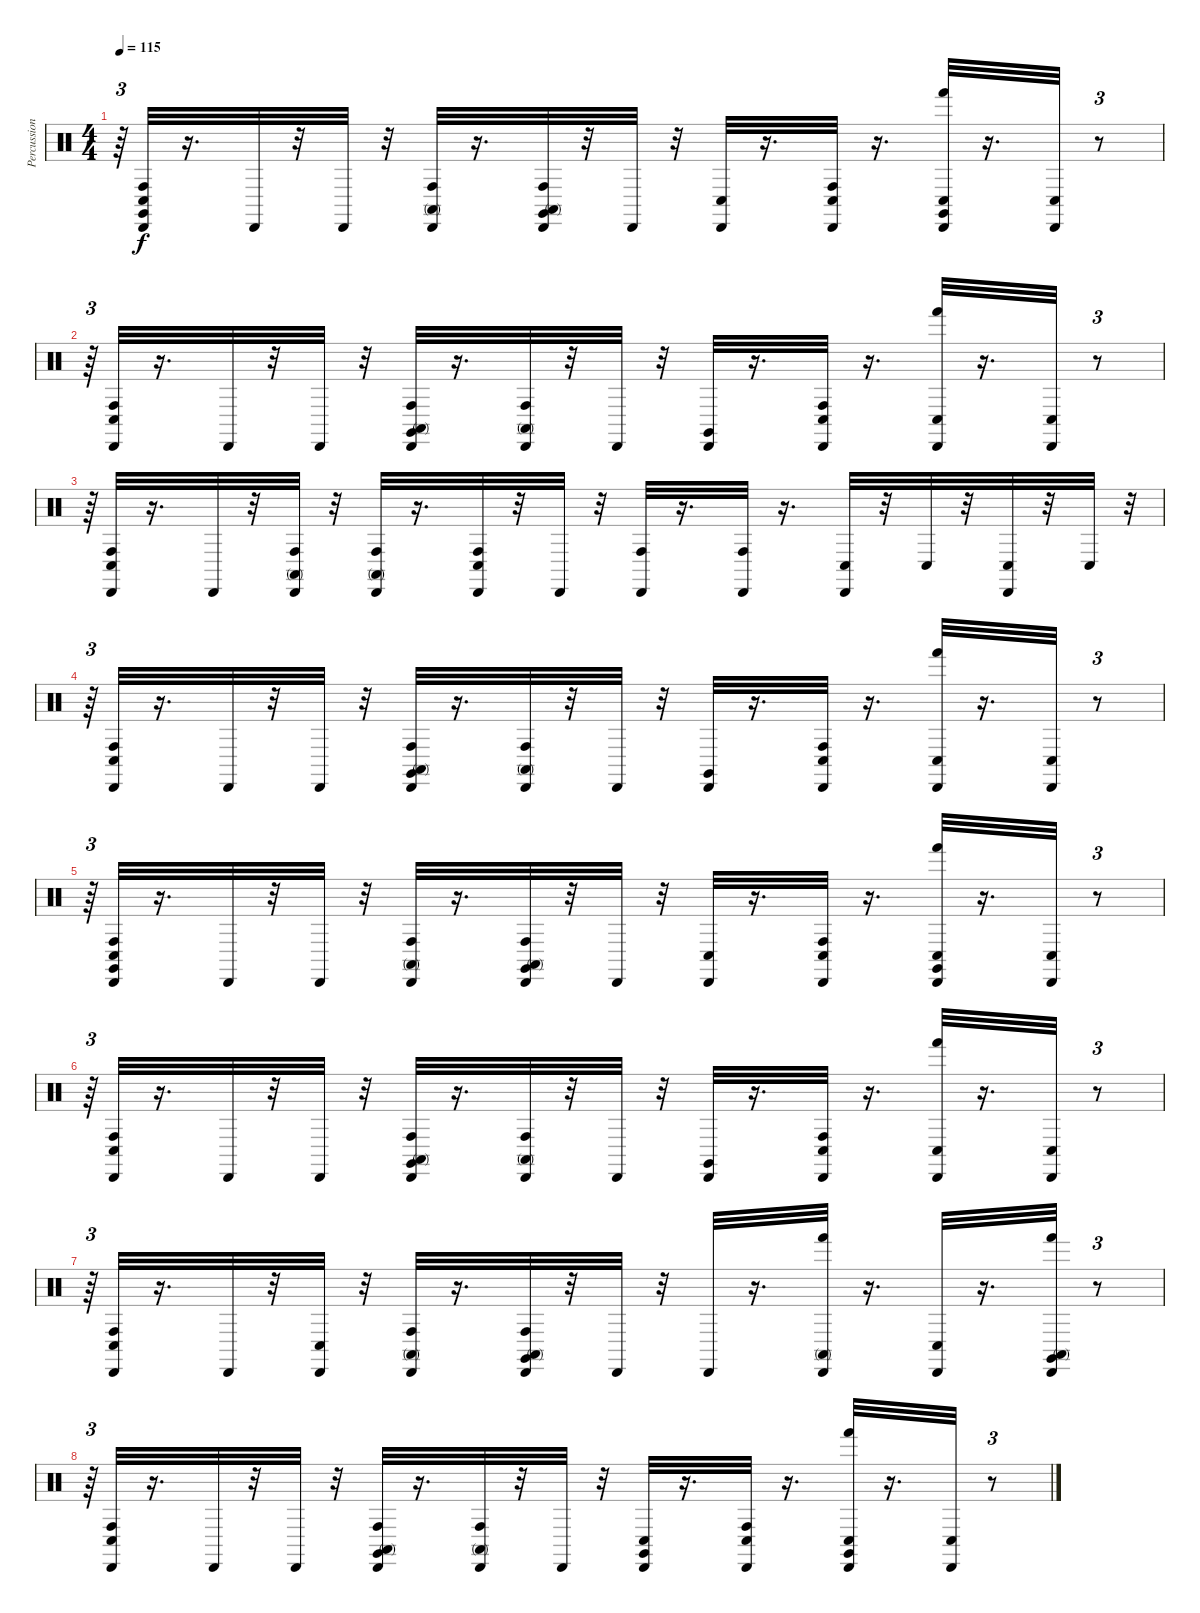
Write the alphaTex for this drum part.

\track ("Percussion" "Percussion") {instrument percussion}
\staff {score}
\articulation defaults
\ts (4 4)
\tempo 115
\clef neutral
\ks c
r.64{tu (3 2) dy f} ("Claves (hit)" "Conga high (hit)" "Conga low (hit)" "Cabasa (hit)").32 r.16{d} "Cabasa (hit)".32 r.32 "Cabasa (hit)".32 r.32 ("Conga high (hit)" "Conga high (mute)" "Cabasa (hit)").32 r.16{d} ("Conga high (hit)" "Cabasa (hit)" "Conga high (mute)" "Claves (hit)").32 r.32 "Cabasa (hit)".32 r.32 ("Conga low (hit)" "Cabasa (hit)").32 r.16{d} ("Conga low (hit)" "Cabasa (hit)" "Conga high (hit)").32 r.16{d} ("Conga low (hit)" "Hand (hit)" "Claves (hit)" "Cabasa (hit)").32 r.16{d} ("Cabasa (hit)" "Conga low (hit)").32 r.8{tu (3 2)} |
r.64{tu (3 2)} ("Conga low (hit)" "Cabasa (hit)" "Conga high (hit)").32 r.16{d} "Cabasa (hit)".32 r.32 "Cabasa (hit)".32 r.32 ("Claves (hit)" "Conga high (hit)" "Conga high (mute)" "Cabasa (hit)").32 r.16{d} ("Conga high (mute)" "Conga high (hit)" "Cabasa (hit)").32 r.32 "Cabasa (hit)".32 r.32 ("Cabasa (hit)" "Claves (hit)").32 r.16{d} ("Conga low (hit)" "Cabasa (hit)" "Conga high (hit)").32 r.16{d} ("Cabasa (hit)" "Conga low (hit)" "Hand (hit)").32 r.16{d} ("Cabasa (hit)" "Conga low (hit)").32 r.8{tu (3 2)} |
r.64{tu (3 2)} ("Conga high (hit)" "Conga low (hit)" "Cabasa (hit)").32 r.16{d} "Cabasa (hit)".32 r.32 ("Conga high (hit)" "Cabasa (hit)" "Conga high (mute)").32 r.32 ("Conga high (hit)" "Conga high (mute)" "Cabasa (hit)").32 r.16{d} ("Cabasa (hit)" "Conga high (hit)" "Conga low (hit)").32 r.32 "Cabasa (hit)".32 r.32 ("Cabasa (hit)" "Conga high (hit)").32 r.16{d} ("Cabasa (hit)" "Conga high (hit)").32 r.16{d} ("Cabasa (hit)" "Conga low (hit)").32 r.32 "Conga low (hit)".32 r.32 ("Cabasa (hit)" "Conga low (hit)").32 r.32 "Conga low (hit)".32 r.32{tu (3 2)} |
r.64{tu (3 2)} ("Conga low (hit)" "Cabasa (hit)" "Conga high (hit)").32 r.16{d} "Cabasa (hit)".32 r.32 "Cabasa (hit)".32 r.32 ("Cabasa (hit)" "Claves (hit)" "Conga high (mute)" "Conga high (hit)").32 r.16{d} ("Conga high (hit)" "Cabasa (hit)" "Conga high (mute)").32 r.32 "Cabasa (hit)".32 r.32 ("Cabasa (hit)" "Claves (hit)").32 r.16{d} ("Conga high (hit)" "Conga low (hit)" "Cabasa (hit)").32 r.16{d} ("Conga low (hit)" "Hand (hit)" "Cabasa (hit)").32 r.16{d} ("Conga low (hit)" "Cabasa (hit)").32 r.8{tu (3 2)} |
r.64{tu (3 2)} ("Conga high (hit)" "Conga low (hit)" "Cabasa (hit)" "Claves (hit)").32 r.16{d} "Cabasa (hit)".32 r.32 "Cabasa (hit)".32 r.32 ("Cabasa (hit)" "Conga high (mute)" "Conga high (hit)").32 r.16{d} ("Claves (hit)" "Cabasa (hit)" "Conga high (hit)" "Conga high (mute)").32 r.32 "Cabasa (hit)".32 r.32 ("Conga low (hit)" "Cabasa (hit)").32 r.16{d} ("Conga low (hit)" "Conga high (hit)" "Cabasa (hit)").32 r.16{d} ("Claves (hit)" "Conga low (hit)" "Hand (hit)" "Cabasa (hit)").32 r.16{d} ("Conga low (hit)" "Cabasa (hit)").32 r.8{tu (3 2)} |
r.64{tu (3 2)} ("Conga high (hit)" "Conga low (hit)" "Cabasa (hit)").32 r.16{d} "Cabasa (hit)".32 r.32 "Cabasa (hit)".32 r.32 ("Conga high (hit)" "Conga high (mute)" "Claves (hit)" "Cabasa (hit)").32 r.16{d} ("Conga high (hit)" "Conga high (mute)" "Cabasa (hit)").32 r.32 "Cabasa (hit)".32 r.32 ("Cabasa (hit)" "Claves (hit)").32 r.16{d} ("Conga high (hit)" "Cabasa (hit)" "Conga low (hit)").32 r.16{d} ("Conga low (hit)" "Cabasa (hit)" "Hand (hit)").32 r.16{d} ("Conga low (hit)" "Cabasa (hit)").32 r.8{tu (3 2)} |
r.64{tu (3 2)} ("Conga high (hit)" "Conga low (hit)" "Cabasa (hit)").32 r.16{d} "Cabasa (hit)".32 r.32 ("Conga low (hit)" "Cabasa (hit)").32 r.32 ("Cabasa (hit)" "Conga high (mute)" "Conga high (hit)").32 r.16{d} ("Claves (hit)" "Cabasa (hit)" "Conga high (mute)" "Conga high (hit)").32 r.32 "Cabasa (hit)".32 r.32 "Cabasa (hit)".32 r.16{d} ("Conga high (mute)" "Cabasa (hit)" "Hand (hit)").32 r.16{d} ("Cabasa (hit)" "Conga low (hit)").32 r.16{d} ("Claves (hit)" "Cabasa (hit)" "Hand (hit)" "Conga high (mute)").32 r.8{tu (3 2)} |
r.64{tu (3 2)} ("Conga high (hit)" "Conga low (hit)" "Cabasa (hit)").32 r.16{d} "Cabasa (hit)".32 r.32 "Cabasa (hit)".32 r.32 ("Conga high (mute)" "Conga high (hit)" "Claves (hit)" "Cabasa (hit)").32 r.16{d} ("Conga high (hit)" "Conga high (mute)" "Cabasa (hit)").32 r.32 "Cabasa (hit)".32 r.32 ("Claves (hit)" "Cabasa (hit)" "Conga low (hit)").32 r.16{d} ("Conga low (hit)" "Cabasa (hit)" "Conga high (hit)").32 r.16{d} ("Claves (hit)" "Conga low (hit)" "Hand (hit)" "Cabasa (hit)").32 r.16{d} ("Cabasa (hit)" "Conga low (hit)").32 r.8{tu (3 2)}
